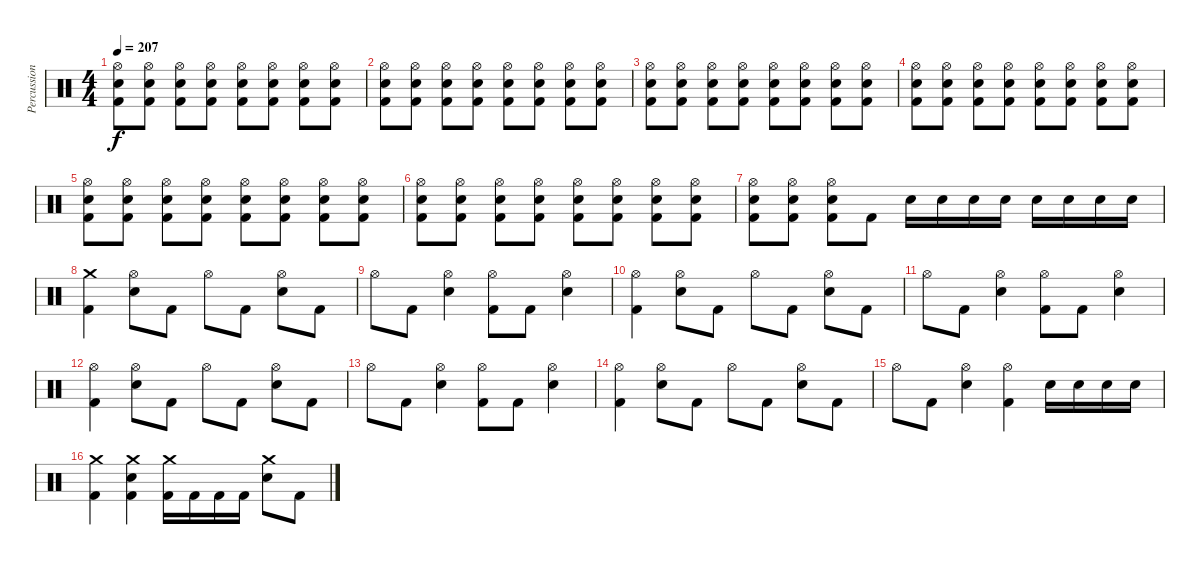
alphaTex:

\track ("Percussion" "Percussion") {instrument percussion}
\staff {score}
\articulation defaults
\ts (4 4)
\tempo 207
\clef neutral
\ks c
("Hi-Hat (open)" "Electric Snare (hit)" "Kick (hit) 2").8{dy f} ("Hi-Hat (open)" "Electric Snare (hit)" "Kick (hit) 2").8 ("Hi-Hat (open)" "Electric Snare (hit)" "Kick (hit) 2").8 ("Hi-Hat (open)" "Electric Snare (hit)" "Kick (hit) 2").8 ("Hi-Hat (open)" "Electric Snare (hit)" "Kick (hit) 2").8 ("Hi-Hat (open)" "Electric Snare (hit)" "Kick (hit) 2").8 ("Hi-Hat (open)" "Electric Snare (hit)" "Kick (hit) 2").8 ("Hi-Hat (open)" "Electric Snare (hit)" "Kick (hit) 2").8 |
("Hi-Hat (open)" "Electric Snare (hit)" "Kick (hit) 2").8 ("Hi-Hat (open)" "Electric Snare (hit)" "Kick (hit) 2").8 ("Hi-Hat (open)" "Electric Snare (hit)" "Kick (hit) 2").8 ("Hi-Hat (open)" "Electric Snare (hit)" "Kick (hit) 2").8 ("Hi-Hat (open)" "Electric Snare (hit)" "Kick (hit) 2").8 ("Hi-Hat (open)" "Electric Snare (hit)" "Kick (hit) 2").8 ("Hi-Hat (open)" "Electric Snare (hit)" "Kick (hit) 2").8 ("Hi-Hat (open)" "Electric Snare (hit)" "Kick (hit) 2").8 |
("Hi-Hat (open)" "Electric Snare (hit)" "Kick (hit) 2").8 ("Hi-Hat (open)" "Electric Snare (hit)" "Kick (hit) 2").8 ("Hi-Hat (open)" "Electric Snare (hit)" "Kick (hit) 2").8 ("Hi-Hat (open)" "Electric Snare (hit)" "Kick (hit) 2").8 ("Hi-Hat (open)" "Electric Snare (hit)" "Kick (hit) 2").8 ("Hi-Hat (open)" "Electric Snare (hit)" "Kick (hit) 2").8 ("Hi-Hat (open)" "Electric Snare (hit)" "Kick (hit) 2").8 ("Hi-Hat (open)" "Electric Snare (hit)" "Kick (hit) 2").8 |
("Hi-Hat (open)" "Electric Snare (hit)" "Kick (hit) 2").8 ("Hi-Hat (open)" "Electric Snare (hit)" "Kick (hit) 2").8 ("Hi-Hat (open)" "Electric Snare (hit)" "Kick (hit) 2").8 ("Hi-Hat (open)" "Electric Snare (hit)" "Kick (hit) 2").8 ("Hi-Hat (open)" "Electric Snare (hit)" "Kick (hit) 2").8 ("Hi-Hat (open)" "Electric Snare (hit)" "Kick (hit) 2").8 ("Hi-Hat (open)" "Electric Snare (hit)" "Kick (hit) 2").8 ("Hi-Hat (open)" "Electric Snare (hit)" "Kick (hit) 2").8 |
("Hi-Hat (open)" "Electric Snare (hit)" "Kick (hit) 2").8 ("Hi-Hat (open)" "Electric Snare (hit)" "Kick (hit) 2").8 ("Hi-Hat (open)" "Electric Snare (hit)" "Kick (hit) 2").8 ("Hi-Hat (open)" "Electric Snare (hit)" "Kick (hit) 2").8 ("Hi-Hat (open)" "Electric Snare (hit)" "Kick (hit) 2").8 ("Hi-Hat (open)" "Electric Snare (hit)" "Kick (hit) 2").8 ("Hi-Hat (open)" "Electric Snare (hit)" "Kick (hit) 2").8 ("Hi-Hat (open)" "Electric Snare (hit)" "Kick (hit) 2").8 |
("Hi-Hat (open)" "Electric Snare (hit)" "Kick (hit) 2").8 ("Hi-Hat (open)" "Electric Snare (hit)" "Kick (hit) 2").8 ("Hi-Hat (open)" "Electric Snare (hit)" "Kick (hit) 2").8 ("Hi-Hat (open)" "Electric Snare (hit)" "Kick (hit) 2").8 ("Hi-Hat (open)" "Electric Snare (hit)" "Kick (hit) 2").8 ("Hi-Hat (open)" "Electric Snare (hit)" "Kick (hit) 2").8 ("Hi-Hat (open)" "Electric Snare (hit)" "Kick (hit) 2").8 ("Hi-Hat (open)" "Electric Snare (hit)" "Kick (hit) 2").8 |
("Hi-Hat (open)" "Electric Snare (hit)" "Kick (hit) 2").8 ("Hi-Hat (open)" "Electric Snare (hit)" "Kick (hit) 2").8 ("Hi-Hat (open)" "Electric Snare (hit)" "Kick (hit) 2").8 "Kick (hit) 2".8 "Electric Snare (hit)".16 "Electric Snare (hit)".16 "Electric Snare (hit)".16 "Electric Snare (hit)".16 "Electric Snare (hit)".16 "Electric Snare (hit)".16 "Electric Snare (hit)".16 "Electric Snare (hit)".16 |
("Crash medium (hit)" "Kick (hit) 2").4 ("Hi-Hat (open)" "Electric Snare (hit)").8 "Kick (hit) 2".8 "Hi-Hat (open)".8 "Kick (hit) 2".8 ("Hi-Hat (open)" "Electric Snare (hit)").8 "Kick (hit) 2".8 |
"Hi-Hat (open)".8 "Kick (hit) 2".8 ("Hi-Hat (open)" "Electric Snare (hit)").4 ("Hi-Hat (open)" "Kick (hit) 2").8 "Kick (hit) 2".8 ("Hi-Hat (open)" "Electric Snare (hit)").4 |
("Hi-Hat (open)" "Kick (hit) 2").4 ("Hi-Hat (open)" "Electric Snare (hit)").8 "Kick (hit) 2".8 "Hi-Hat (open)".8 "Kick (hit) 2".8 ("Hi-Hat (open)" "Electric Snare (hit)").8 "Kick (hit) 2".8 |
"Hi-Hat (open)".8 "Kick (hit) 2".8 ("Hi-Hat (open)" "Electric Snare (hit)").4 ("Hi-Hat (open)" "Kick (hit) 2").8 "Kick (hit) 2".8 ("Hi-Hat (open)" "Electric Snare (hit)").4 |
("Hi-Hat (open)" "Kick (hit) 2").4 ("Hi-Hat (open)" "Electric Snare (hit)").8 "Kick (hit) 2".8 "Hi-Hat (open)".8 "Kick (hit) 2".8 ("Hi-Hat (open)" "Electric Snare (hit)").8 "Kick (hit) 2".8 |
"Hi-Hat (open)".8 "Kick (hit) 2".8 ("Hi-Hat (open)" "Electric Snare (hit)").4 ("Hi-Hat (open)" "Kick (hit) 2").8 "Kick (hit) 2".8 ("Hi-Hat (open)" "Electric Snare (hit)").4 |
("Hi-Hat (open)" "Kick (hit) 2").4 ("Hi-Hat (open)" "Electric Snare (hit)").8 "Kick (hit) 2".8 "Hi-Hat (open)".8 "Kick (hit) 2".8 ("Hi-Hat (open)" "Electric Snare (hit)").8 "Kick (hit) 2".8 |
"Hi-Hat (open)".8 "Kick (hit) 2".8 ("Hi-Hat (open)" "Electric Snare (hit)").4 ("Hi-Hat (open)" "Kick (hit) 2").4 "Electric Snare (hit)".16 "Electric Snare (hit)".16 "Electric Snare (hit)".16 "Electric Snare (hit)".16 |
("Crash medium (hit)" "Kick (hit) 2").4 ("Crash medium (hit)" "Electric Snare (hit)" "Kick (hit) 2").4 ("Crash medium (hit)" "Kick (hit) 2").16 "Kick (hit) 2".16 "Kick (hit) 2".16 "Kick (hit) 2".16 ("Crash medium (hit)" "Electric Snare (hit)").8 "Kick (hit) 2".8
